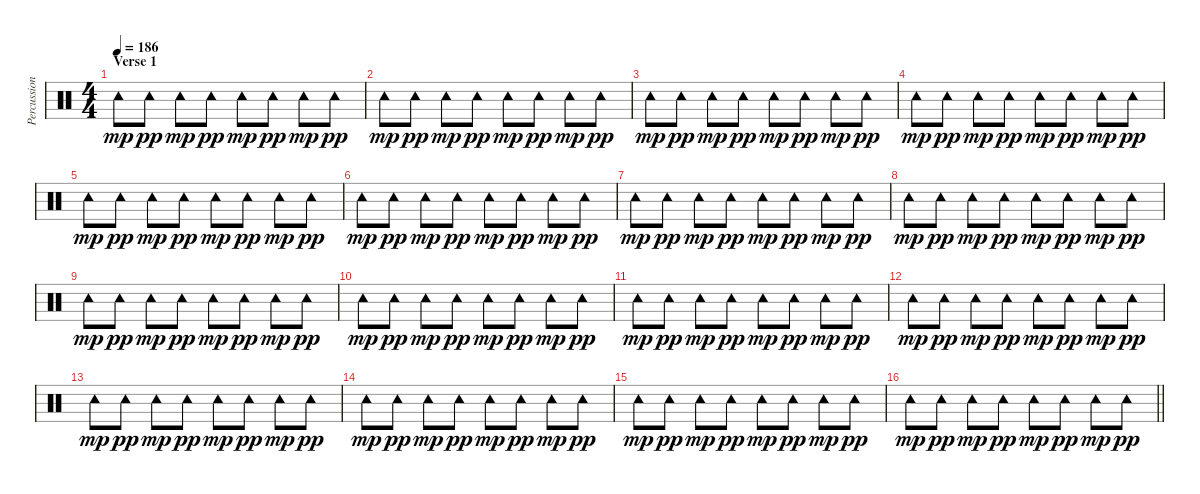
\track ("Percussion" "Percussion") {instrument percussion}
\staff {score}
\articulation defaults
\ts (4 4)
\section ("" "Verse 1")
\tempo 186
\clef neutral
\ks c "Tambourine (hit)".8{dy mp} "Tambourine (hit)".8{dy pp} "Tambourine (hit)".8{dy mp} "Tambourine (hit)".8{dy pp} "Tambourine (hit)".8{dy mp} "Tambourine (hit)".8{dy pp} "Tambourine (hit)".8{dy mp} "Tambourine (hit)".8{dy pp}
|
"Tambourine (hit)".8{dy mp} "Tambourine (hit)".8{dy pp} "Tambourine (hit)".8{dy mp} "Tambourine (hit)".8{dy pp} "Tambourine (hit)".8{dy mp} "Tambourine (hit)".8{dy pp} "Tambourine (hit)".8{dy mp} "Tambourine (hit)".8{dy pp} |
"Tambourine (hit)".8{dy mp} "Tambourine (hit)".8{dy pp} "Tambourine (hit)".8{dy mp} "Tambourine (hit)".8{dy pp} "Tambourine (hit)".8{dy mp} "Tambourine (hit)".8{dy pp} "Tambourine (hit)".8{dy mp} "Tambourine (hit)".8{dy pp} |
"Tambourine (hit)".8{dy mp} "Tambourine (hit)".8{dy pp} "Tambourine (hit)".8{dy mp} "Tambourine (hit)".8{dy pp} "Tambourine (hit)".8{dy mp} "Tambourine (hit)".8{dy pp} "Tambourine (hit)".8{dy mp} "Tambourine (hit)".8{dy pp} |
"Tambourine (hit)".8{dy mp} "Tambourine (hit)".8{dy pp} "Tambourine (hit)".8{dy mp} "Tambourine (hit)".8{dy pp} "Tambourine (hit)".8{dy mp} "Tambourine (hit)".8{dy pp} "Tambourine (hit)".8{dy mp} "Tambourine (hit)".8{dy pp} |
"Tambourine (hit)".8{dy mp} "Tambourine (hit)".8{dy pp} "Tambourine (hit)".8{dy mp} "Tambourine (hit)".8{dy pp} "Tambourine (hit)".8{dy mp} "Tambourine (hit)".8{dy pp} "Tambourine (hit)".8{dy mp} "Tambourine (hit)".8{dy pp} |
"Tambourine (hit)".8{dy mp} "Tambourine (hit)".8{dy pp} "Tambourine (hit)".8{dy mp} "Tambourine (hit)".8{dy pp} "Tambourine (hit)".8{dy mp} "Tambourine (hit)".8{dy pp} "Tambourine (hit)".8{dy mp} "Tambourine (hit)".8{dy pp} |
"Tambourine (hit)".8{dy mp} "Tambourine (hit)".8{dy pp} "Tambourine (hit)".8{dy mp} "Tambourine (hit)".8{dy pp} "Tambourine (hit)".8{dy mp} "Tambourine (hit)".8{dy pp} "Tambourine (hit)".8{dy mp} "Tambourine (hit)".8{dy pp} |
"Tambourine (hit)".8{dy mp} "Tambourine (hit)".8{dy pp} "Tambourine (hit)".8{dy mp} "Tambourine (hit)".8{dy pp} "Tambourine (hit)".8{dy mp} "Tambourine (hit)".8{dy pp} "Tambourine (hit)".8{dy mp} "Tambourine (hit)".8{dy pp} |
"Tambourine (hit)".8{dy mp} "Tambourine (hit)".8{dy pp} "Tambourine (hit)".8{dy mp} "Tambourine (hit)".8{dy pp} "Tambourine (hit)".8{dy mp} "Tambourine (hit)".8{dy pp} "Tambourine (hit)".8{dy mp} "Tambourine (hit)".8{dy pp} |
"Tambourine (hit)".8{dy mp} "Tambourine (hit)".8{dy pp} "Tambourine (hit)".8{dy mp} "Tambourine (hit)".8{dy pp} "Tambourine (hit)".8{dy mp} "Tambourine (hit)".8{dy pp} "Tambourine (hit)".8{dy mp} "Tambourine (hit)".8{dy pp} |
"Tambourine (hit)".8{dy mp} "Tambourine (hit)".8{dy pp} "Tambourine (hit)".8{dy mp} "Tambourine (hit)".8{dy pp} "Tambourine (hit)".8{dy mp} "Tambourine (hit)".8{dy pp} "Tambourine (hit)".8{dy mp} "Tambourine (hit)".8{dy pp} |
"Tambourine (hit)".8{dy mp} "Tambourine (hit)".8{dy pp} "Tambourine (hit)".8{dy mp} "Tambourine (hit)".8{dy pp} "Tambourine (hit)".8{dy mp} "Tambourine (hit)".8{dy pp} "Tambourine (hit)".8{dy mp} "Tambourine (hit)".8{dy pp} |
"Tambourine (hit)".8{dy mp} "Tambourine (hit)".8{dy pp} "Tambourine (hit)".8{dy mp} "Tambourine (hit)".8{dy pp} "Tambourine (hit)".8{dy mp} "Tambourine (hit)".8{dy pp} "Tambourine (hit)".8{dy mp} "Tambourine (hit)".8{dy pp} |
"Tambourine (hit)".8{dy mp} "Tambourine (hit)".8{dy pp} "Tambourine (hit)".8{dy mp} "Tambourine (hit)".8{dy pp} "Tambourine (hit)".8{dy mp} "Tambourine (hit)".8{dy pp} "Tambourine (hit)".8{dy mp} "Tambourine (hit)".8{dy pp} |
\barLineRight lightlight "Tambourine (hit)".8{dy mp} "Tambourine (hit)".8{dy pp} "Tambourine (hit)".8{dy mp} "Tambourine (hit)".8{dy pp} "Tambourine (hit)".8{dy mp} "Tambourine (hit)".8{dy pp} "Tambourine (hit)".8{dy mp} "Tambourine (hit)".8{dy pp}
